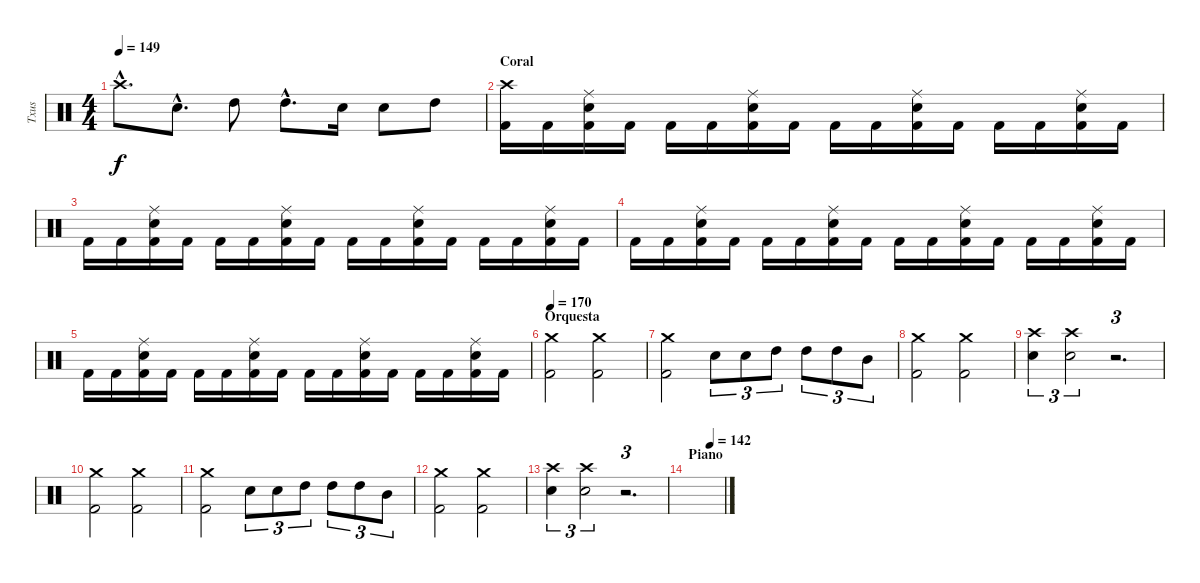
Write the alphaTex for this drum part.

\track ("Txus" "Txus") {instrument percussion}
\staff {score}
\articulation defaults
\ts (4 4)
\tempo 149
\clef neutral
\ks c "Crash high (hit)"{hac}.8{d dy f} "Electric Snare (hit)"{hac}.8{d} "High Tom (hit)".8 "High Tom (hit)"{hac}.8{d} "Electric Snare (hit)".16 "Electric Snare (hit)".8 "High Tom (hit)".8
|
\section ("" "Coral")
("Kick (hit) 2" "Crash high (hit)").16 "Kick (hit) 2".16 ("Kick (hit) 2" "Electric Snare (hit)" "Ride (middle)").16 "Kick (hit) 2".16 "Kick (hit) 2".16 "Kick (hit) 2".16 ("Kick (hit) 2" "Electric Snare (hit)" "Ride (middle)").16 "Kick (hit) 2".16 "Kick (hit) 2".16 "Kick (hit) 2".16 ("Kick (hit) 2" "Electric Snare (hit)" "Ride (middle)").16 "Kick (hit) 2".16 "Kick (hit) 2".16 "Kick (hit) 2".16 ("Kick (hit) 2" "Electric Snare (hit)" "Ride (middle)").16 "Kick (hit) 2".16 |
"Kick (hit) 2".16 "Kick (hit) 2".16 ("Kick (hit) 2" "Electric Snare (hit)" "Ride (middle)").16 "Kick (hit) 2".16 "Kick (hit) 2".16 "Kick (hit) 2".16 ("Kick (hit) 2" "Electric Snare (hit)" "Ride (middle)").16 "Kick (hit) 2".16 "Kick (hit) 2".16 "Kick (hit) 2".16 ("Kick (hit) 2" "Electric Snare (hit)" "Ride (middle)").16 "Kick (hit) 2".16 "Kick (hit) 2".16 "Kick (hit) 2".16 ("Kick (hit) 2" "Electric Snare (hit)" "Ride (middle)").16 "Kick (hit) 2".16 |
"Kick (hit) 2".16 "Kick (hit) 2".16 ("Kick (hit) 2" "Electric Snare (hit)" "Ride (middle)").16 "Kick (hit) 2".16 "Kick (hit) 2".16 "Kick (hit) 2".16 ("Kick (hit) 2" "Electric Snare (hit)" "Ride (middle)").16 "Kick (hit) 2".16 "Kick (hit) 2".16 "Kick (hit) 2".16 ("Kick (hit) 2" "Electric Snare (hit)" "Ride (middle)").16 "Kick (hit) 2".16 "Kick (hit) 2".16 "Kick (hit) 2".16 ("Kick (hit) 2" "Electric Snare (hit)" "Ride (middle)").16 "Kick (hit) 2".16 |
"Kick (hit) 2".16 "Kick (hit) 2".16 ("Kick (hit) 2" "Electric Snare (hit)" "Ride (middle)").16 "Kick (hit) 2".16 "Kick (hit) 2".16 "Kick (hit) 2".16 ("Kick (hit) 2" "Electric Snare (hit)" "Ride (middle)").16 "Kick (hit) 2".16 "Kick (hit) 2".16 "Kick (hit) 2".16 ("Kick (hit) 2" "Electric Snare (hit)" "Ride (middle)").16 "Kick (hit) 2".16 "Kick (hit) 2".16 "Kick (hit) 2".16 ("Kick (hit) 2" "Electric Snare (hit)" "Ride (middle)").16 "Kick (hit) 2".16 |
\section ("" "Orquesta")
\tempo 170
("Kick (hit) 2" "Crash medium (hit)").2 ("Kick (hit) 2" "Crash medium (hit)").2 |
("Kick (hit) 2" "Crash medium (hit)").2 "Electric Snare (hit)".8{tu (3 2)} "Electric Snare (hit)".8{tu (3 2)} "High Tom (hit)".8{tu (3 2)} "High Tom (hit)".8{tu (3 2)} "High Tom (hit)".8{tu (3 2)} "Mid Tom (hit)".8{tu (3 2)} |
("Kick (hit) 2" "Crash medium (hit)").2 ("Kick (hit) 2" "Crash medium (hit)").2 |
("Electric Snare (hit)" "Crash high (hit)").4{tu (3 2)} ("Electric Snare (hit)" "Crash high (hit)").2{tu (3 2)} r.2{d tu (3 2)} |
("Kick (hit) 2" "Crash medium (hit)").2 ("Kick (hit) 2" "Crash medium (hit)").2 |
("Kick (hit) 2" "Crash medium (hit)").2 "Electric Snare (hit)".8{tu (3 2)} "Electric Snare (hit)".8{tu (3 2)} "High Tom (hit)".8{tu (3 2)} "High Tom (hit)".8{tu (3 2)} "High Tom (hit)".8{tu (3 2)} "Mid Tom (hit)".8{tu (3 2)} |
("Kick (hit) 2" "Crash medium (hit)").2 ("Kick (hit) 2" "Crash medium (hit)").2 |
("Electric Snare (hit)" "Crash high (hit)").4{tu (3 2)} ("Electric Snare (hit)" "Crash high (hit)").2{tu (3 2)} r.2{d tu (3 2)} |
\section ("" "Piano")
\tempo (142 0.625)
